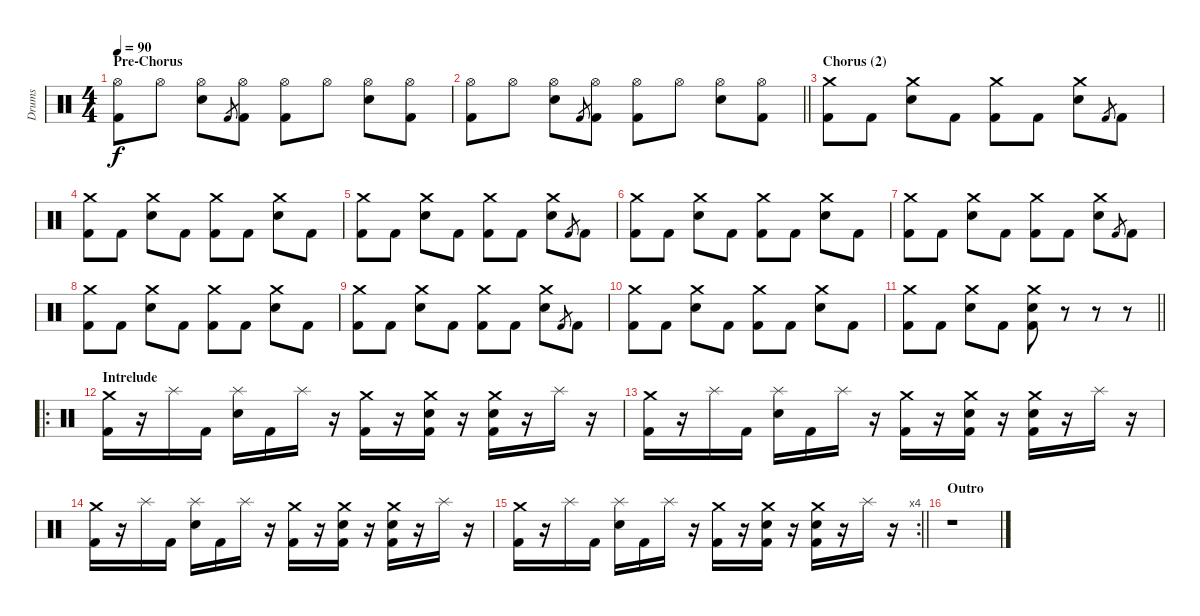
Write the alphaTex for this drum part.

\track ("Drums" "Drums") {instrument percussion}
\staff {score}
\articulation defaults
\ts (4 4)
\section ("" "Pre-Chorus")
\tempo 90
\clef neutral
\ks c
("Hi-Hat (open)" "Kick (hit) 2").8{dy f} "Hi-Hat (open)".8 ("Hi-Hat (open)" "Electric Snare (hit)").8 "Kick (hit) 2".8{gr} ("Hi-Hat (open)" "Kick (hit) 2").8 ("Hi-Hat (open)" "Kick (hit) 2").8 "Hi-Hat (open)".8 ("Hi-Hat (open)" "Electric Snare (hit)").8 ("Hi-Hat (open)" "Kick (hit) 2").8 |
\barLineRight lightlight
("Hi-Hat (open)" "Kick (hit) 2").8 "Hi-Hat (open)".8 ("Hi-Hat (open)" "Electric Snare (hit)").8 "Kick (hit) 2".8{gr} ("Hi-Hat (open)" "Kick (hit) 2").8 ("Hi-Hat (open)" "Kick (hit) 2").8 "Hi-Hat (open)".8 ("Hi-Hat (open)" "Electric Snare (hit)").8 ("Hi-Hat (open)" "Kick (hit) 2").8 |
\section ("" "Chorus (2)")
("Crash medium (hit)" "Kick (hit) 2").8 "Kick (hit) 2".8 ("Crash medium (hit)" "Electric Snare (hit)").8 "Kick (hit) 2".8 ("Crash medium (hit)" "Kick (hit) 2").8 "Kick (hit) 2".8 ("Crash medium (hit)" "Electric Snare (hit)").8 "Kick (hit) 2".8{gr} "Kick (hit) 2".8 |
("Crash medium (hit)" "Kick (hit) 2").8 "Kick (hit) 2".8 ("Crash medium (hit)" "Electric Snare (hit)").8 "Kick (hit) 2".8 ("Crash medium (hit)" "Kick (hit) 2").8 "Kick (hit) 2".8 ("Crash medium (hit)" "Electric Snare (hit)").8 "Kick (hit) 2".8 |
("Crash medium (hit)" "Kick (hit) 2").8 "Kick (hit) 2".8 ("Crash medium (hit)" "Electric Snare (hit)").8 "Kick (hit) 2".8 ("Crash medium (hit)" "Kick (hit) 2").8 "Kick (hit) 2".8 ("Crash medium (hit)" "Electric Snare (hit)").8 "Kick (hit) 2".8{gr} "Kick (hit) 2".8 |
("Crash medium (hit)" "Kick (hit) 2").8 "Kick (hit) 2".8 ("Crash medium (hit)" "Electric Snare (hit)").8 "Kick (hit) 2".8 ("Crash medium (hit)" "Kick (hit) 2").8 "Kick (hit) 2".8 ("Crash medium (hit)" "Electric Snare (hit)").8 "Kick (hit) 2".8 |
("Crash medium (hit)" "Kick (hit) 2").8 "Kick (hit) 2".8 ("Crash medium (hit)" "Electric Snare (hit)").8 "Kick (hit) 2".8 ("Crash medium (hit)" "Kick (hit) 2").8 "Kick (hit) 2".8 ("Crash medium (hit)" "Electric Snare (hit)").8 "Kick (hit) 2".8{gr} "Kick (hit) 2".8 |
("Crash medium (hit)" "Kick (hit) 2").8 "Kick (hit) 2".8 ("Crash medium (hit)" "Electric Snare (hit)").8 "Kick (hit) 2".8 ("Crash medium (hit)" "Kick (hit) 2").8 "Kick (hit) 2".8 ("Crash medium (hit)" "Electric Snare (hit)").8 "Kick (hit) 2".8 |
("Crash medium (hit)" "Kick (hit) 2").8 "Kick (hit) 2".8 ("Crash medium (hit)" "Electric Snare (hit)").8 "Kick (hit) 2".8 ("Crash medium (hit)" "Kick (hit) 2").8 "Kick (hit) 2".8 ("Crash medium (hit)" "Electric Snare (hit)").8 "Kick (hit) 2".8{gr} "Kick (hit) 2".8 |
("Crash medium (hit)" "Kick (hit) 2").8 "Kick (hit) 2".8 ("Crash medium (hit)" "Electric Snare (hit)").8 "Kick (hit) 2".8 ("Crash medium (hit)" "Kick (hit) 2").8 "Kick (hit) 2".8 ("Crash medium (hit)" "Electric Snare (hit)").8 "Kick (hit) 2".8 |
\barLineRight lightlight
("Crash medium (hit)" "Kick (hit) 2").8 "Kick (hit) 2".8 ("Crash medium (hit)" "Electric Snare (hit)").8 "Kick (hit) 2".8 ("Crash medium (hit)" "Electric Snare (hit)" "Kick (hit) 2").8 r.8 r.8 r.8 |
\ro
\section ("" "Intrelude")
("Crash medium (hit)" "Kick (hit) 2").16 r.16 "Splash (hit)".16 "Kick (hit) 2".16 ("Splash (hit)" "Electric Snare (hit)").16 "Kick (hit) 2".16 "Splash (hit)".16 r.16 ("Crash medium (hit)" "Kick (hit) 2").16 r.16 ("Crash medium (hit)" "Electric Snare (hit)" "Kick (hit) 2").16 r.16 ("Crash medium (hit)" "Electric Snare (hit)" "Kick (hit) 2").16 r.16 "Splash (hit)".16 r.16 |
("Crash medium (hit)" "Kick (hit) 2").16 r.16 "Splash (hit)".16 "Kick (hit) 2".16 ("Splash (hit)" "Electric Snare (hit)").16 "Kick (hit) 2".16 "Splash (hit)".16 r.16 ("Crash medium (hit)" "Kick (hit) 2").16 r.16 ("Crash medium (hit)" "Electric Snare (hit)" "Kick (hit) 2").16 r.16 ("Crash medium (hit)" "Electric Snare (hit)" "Kick (hit) 2").16 r.16 "Splash (hit)".16 r.16 |
("Crash medium (hit)" "Kick (hit) 2").16 r.16 "Splash (hit)".16 "Kick (hit) 2".16 ("Splash (hit)" "Electric Snare (hit)").16 "Kick (hit) 2".16 "Splash (hit)".16 r.16 ("Crash medium (hit)" "Kick (hit) 2").16 r.16 ("Crash medium (hit)" "Electric Snare (hit)" "Kick (hit) 2").16 r.16 ("Crash medium (hit)" "Electric Snare (hit)" "Kick (hit) 2").16 r.16 "Splash (hit)".16 r.16 |
\rc 4
\barLineRight lightlight
("Crash medium (hit)" "Kick (hit) 2").16 r.16 "Splash (hit)".16 "Kick (hit) 2".16 ("Splash (hit)" "Electric Snare (hit)").16 "Kick (hit) 2".16 "Splash (hit)".16 r.16 ("Crash medium (hit)" "Kick (hit) 2").16 r.16 ("Crash medium (hit)" "Electric Snare (hit)" "Kick (hit) 2").16 r.16 ("Crash medium (hit)" "Electric Snare (hit)" "Kick (hit) 2").16 r.16 "Splash (hit)".16 r.16 |
\section ("" "Outro")
r.1
